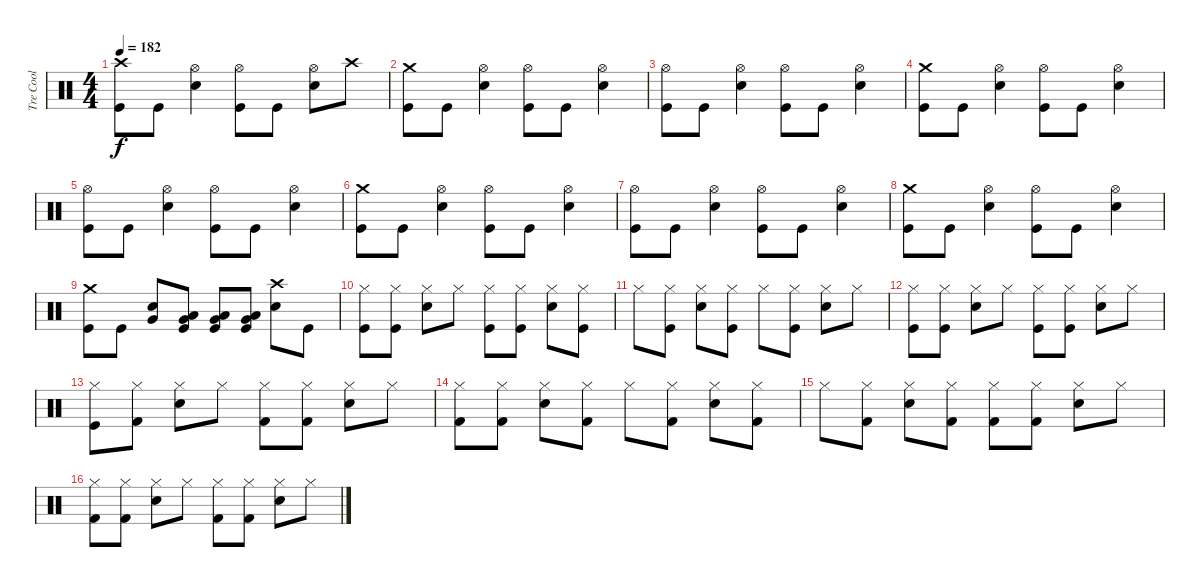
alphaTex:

\track ("Tre Cool" "Tre Cool") {instrument percussion}
\staff {score}
\articulation defaults
\ts (4 4)
\tempo 182
\clef neutral
\ks c
("Crash high (hit)" "Kick (hit)").8{dy f} "Kick (hit)".8 ("Hi-Hat (open)" "Snare (hit) 2").4 ("Hi-Hat (open)" "Kick (hit)").8 "Kick (hit)".8 ("Hi-Hat (open)" "Snare (hit) 2").8 "Crash high (hit)".8 |
("Crash medium (hit)" "Kick (hit)").8 "Kick (hit)".8 ("Hi-Hat (open)" "Snare (hit) 2").4 ("Hi-Hat (open)" "Kick (hit)").8 "Kick (hit)".8 ("Hi-Hat (open)" "Snare (hit) 2").4 |
("Hi-Hat (open)" "Kick (hit)").8 "Kick (hit)".8 ("Hi-Hat (open)" "Snare (hit) 2").4 ("Hi-Hat (open)" "Kick (hit)").8 "Kick (hit)".8 ("Hi-Hat (open)" "Snare (hit) 2").4 |
("Crash medium (hit)" "Kick (hit)").8 "Kick (hit)".8 ("Hi-Hat (open)" "Snare (hit) 2").4 ("Hi-Hat (open)" "Kick (hit)").8 "Kick (hit)".8 ("Hi-Hat (open)" "Snare (hit) 2").4 |
("Hi-Hat (open)" "Kick (hit)").8 "Kick (hit)".8 ("Hi-Hat (open)" "Snare (hit) 2").4 ("Hi-Hat (open)" "Kick (hit)").8 "Kick (hit)".8 ("Hi-Hat (open)" "Snare (hit) 2").4 |
("Crash medium (hit)" "Kick (hit)").8 "Kick (hit)".8 ("Hi-Hat (open)" "Snare (hit) 2").4 ("Hi-Hat (open)" "Kick (hit)").8 "Kick (hit)".8 ("Hi-Hat (open)" "Snare (hit) 2").4 |
("Hi-Hat (open)" "Kick (hit)").8 "Kick (hit)".8 ("Hi-Hat (open)" "Snare (hit) 2").4 ("Hi-Hat (open)" "Kick (hit)").8 "Kick (hit)".8 ("Hi-Hat (open)" "Snare (hit) 2").4 |
("Crash medium (hit)" "Kick (hit)").8 "Kick (hit)".8 ("Hi-Hat (open)" "Snare (hit) 2").4 ("Hi-Hat (open)" "Kick (hit)").8 "Kick (hit)".8 ("Hi-Hat (open)" "Snare (hit) 2").4 |
("Crash medium (hit)" "Kick (hit)").8 "Kick (hit)".8 ("Snare (hit) 2" "Very Low Tom (hit)").8 ("Very Low Tom (hit)" "Low Tom (hit)" "Kick (hit)").8 ("Very Low Tom (hit)" "Low Tom (hit)" "Kick (hit)").8 ("Very Low Tom (hit)" "Low Tom (hit)" "Kick (hit)").8 ("Crash high (hit)" "Snare (hit) 2").8 "Kick (hit)".8 |
("Hi-Hat (closed)" "Kick (hit)").8 ("Hi-Hat (closed)" "Kick (hit)").8 ("Hi-Hat (closed)" "Snare (hit) 2").8 "Hi-Hat (closed)".8 ("Hi-Hat (closed)" "Kick (hit)").8 ("Hi-Hat (closed)" "Kick (hit)").8 ("Hi-Hat (closed)" "Snare (hit) 2").8 ("Hi-Hat (closed)" "Kick (hit)").8 |
"Hi-Hat (closed)".8 ("Hi-Hat (closed)" "Kick (hit)").8 ("Hi-Hat (closed)" "Snare (hit) 2").8 ("Hi-Hat (closed)" "Kick (hit)").8 "Hi-Hat (closed)".8 ("Hi-Hat (closed)" "Kick (hit)").8 ("Hi-Hat (closed)" "Snare (hit) 2").8 "Hi-Hat (closed)".8 |
("Hi-Hat (closed)" "Kick (hit)").8 ("Hi-Hat (closed)" "Kick (hit)").8 ("Hi-Hat (closed)" "Snare (hit) 2").8 "Hi-Hat (closed)".8 ("Hi-Hat (closed)" "Kick (hit)").8 ("Hi-Hat (closed)" "Kick (hit)").8 ("Hi-Hat (closed)" "Snare (hit) 2").8 "Hi-Hat (closed)".8 |
("Hi-Hat (closed)" "Kick (hit)").8 ("Hi-Hat (closed)" "Kick (hit) 2").8 ("Hi-Hat (closed)" "Snare (hit) 2").8 "Hi-Hat (closed)".8 ("Hi-Hat (closed)" "Kick (hit) 2").8 ("Hi-Hat (closed)" "Kick (hit) 2").8 ("Hi-Hat (closed)" "Snare (hit) 2").8 "Hi-Hat (closed)".8 |
("Hi-Hat (closed)" "Kick (hit) 2").8 ("Hi-Hat (closed)" "Kick (hit) 2").8 ("Hi-Hat (closed)" "Snare (hit) 2").8 ("Hi-Hat (closed)" "Kick (hit) 2").8 "Hi-Hat (closed)".8 ("Hi-Hat (closed)" "Kick (hit) 2").8 ("Hi-Hat (closed)" "Snare (hit) 2").8 ("Hi-Hat (closed)" "Kick (hit) 2").8 |
"Hi-Hat (closed)".8 ("Hi-Hat (closed)" "Kick (hit) 2").8 ("Hi-Hat (closed)" "Snare (hit) 2").8 ("Hi-Hat (closed)" "Kick (hit) 2").8 ("Hi-Hat (closed)" "Kick (hit) 2").8 ("Hi-Hat (closed)" "Kick (hit) 2").8 ("Hi-Hat (closed)" "Snare (hit) 2").8 "Hi-Hat (closed)".8 |
("Hi-Hat (closed)" "Kick (hit) 2").8 ("Hi-Hat (closed)" "Kick (hit) 2").8 ("Hi-Hat (closed)" "Snare (hit) 2").8 "Hi-Hat (closed)".8 ("Hi-Hat (closed)" "Kick (hit) 2").8 ("Hi-Hat (closed)" "Kick (hit) 2").8 ("Hi-Hat (closed)" "Snare (hit) 2").8 "Hi-Hat (closed)".8
